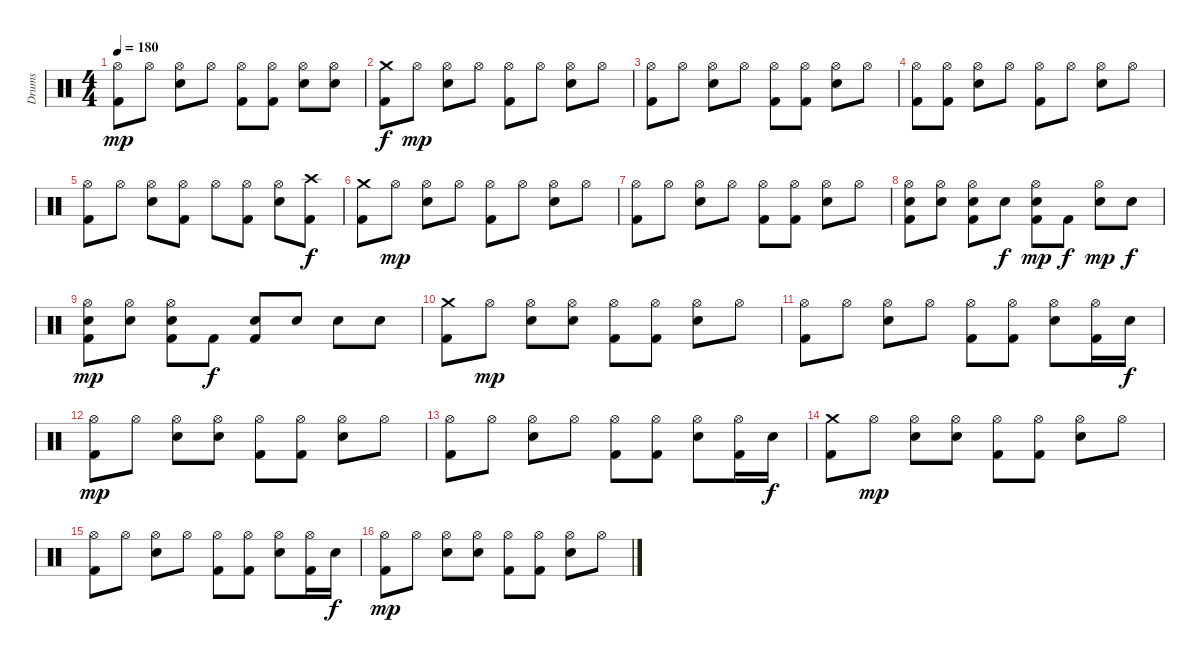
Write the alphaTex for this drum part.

\track ("Drums" "Drums") {instrument percussion}
\staff {score}
\articulation defaults
\ts (4 4)
\tempo 180
\clef neutral
\ks c
("Hi-Hat (open)" "Kick (hit) 2").8{dy mp} "Hi-Hat (open)".8 ("Hi-Hat (open)" "Snare (hit) 2").8 "Hi-Hat (open)".8 ("Hi-Hat (open)" "Kick (hit) 2").8 ("Hi-Hat (open)" "Kick (hit) 2").8 ("Hi-Hat (open)" "Snare (hit) 2").8 ("Hi-Hat (open)" "Snare (hit) 2").8 |
("Crash medium (hit)" "Kick (hit) 2").8{dy f} "Hi-Hat (open)".8{dy mp} ("Hi-Hat (open)" "Snare (hit) 2").8 "Hi-Hat (open)".8 ("Hi-Hat (open)" "Kick (hit) 2").8 "Hi-Hat (open)".8 ("Hi-Hat (open)" "Snare (hit) 2").8 "Hi-Hat (open)".8 |
("Hi-Hat (open)" "Kick (hit) 2").8 "Hi-Hat (open)".8 ("Hi-Hat (open)" "Snare (hit) 2").8 "Hi-Hat (open)".8 ("Hi-Hat (open)" "Kick (hit) 2").8 ("Hi-Hat (open)" "Kick (hit) 2").8 ("Hi-Hat (open)" "Snare (hit) 2").8 "Hi-Hat (open)".8 |
("Hi-Hat (open)" "Kick (hit) 2").8 ("Hi-Hat (open)" "Kick (hit) 2").8 ("Hi-Hat (open)" "Snare (hit) 2").8 "Hi-Hat (open)".8 ("Hi-Hat (open)" "Kick (hit) 2").8 "Hi-Hat (open)".8 ("Hi-Hat (open)" "Snare (hit) 2").8 "Hi-Hat (open)".8 |
("Hi-Hat (open)" "Kick (hit) 2").8 "Hi-Hat (open)".8 ("Hi-Hat (open)" "Snare (hit) 2").8 ("Hi-Hat (open)" "Kick (hit) 2").8 "Hi-Hat (open)".8 ("Hi-Hat (open)" "Kick (hit) 2").8 ("Hi-Hat (open)" "Snare (hit) 2").8 ("Crash high (hit)" "Kick (hit) 2").8{dy f} |
("Crash medium (hit)" "Kick (hit) 2").8 "Hi-Hat (open)".8{dy mp} ("Hi-Hat (open)" "Snare (hit) 2").8 "Hi-Hat (open)".8 ("Hi-Hat (open)" "Kick (hit) 2").8 "Hi-Hat (open)".8 ("Hi-Hat (open)" "Snare (hit) 2").8 "Hi-Hat (open)".8 |
("Hi-Hat (open)" "Kick (hit) 2").8 "Hi-Hat (open)".8 ("Hi-Hat (open)" "Snare (hit) 2").8 "Hi-Hat (open)".8 ("Hi-Hat (open)" "Kick (hit) 2").8 ("Hi-Hat (open)" "Kick (hit) 2").8 ("Hi-Hat (open)" "Snare (hit) 2").8 "Hi-Hat (open)".8 |
("Hi-Hat (open)" "Snare (hit) 2" "Kick (hit) 2").8 ("Hi-Hat (open)" "Snare (hit) 2").8 ("Hi-Hat (open)" "Snare (hit) 2" "Kick (hit) 2").8 "Snare (hit) 2".8{dy f} ("Hi-Hat (open)" "Snare (hit) 2" "Kick (hit) 2").8{dy mp} "Kick (hit) 2".8{dy f} ("Hi-Hat (open)" "Snare (hit) 2").8{dy mp} "Snare (hit) 2".8{dy f} |
("Hi-Hat (open)" "Snare (hit) 2" "Kick (hit) 2").8{dy mp} ("Hi-Hat (open)" "Snare (hit) 2").8 ("Hi-Hat (open)" "Snare (hit) 2" "Kick (hit) 2").8 "Kick (hit) 2".8{dy f} ("Snare (hit) 2" "Kick (hit) 2").8 "Snare (hit) 2".8 "Snare (hit) 2".8 "Snare (hit) 2".8 |
("Crash medium (hit)" "Kick (hit) 2").8 "Hi-Hat (open)".8{dy mp} ("Hi-Hat (open)" "Snare (hit) 2").8 ("Hi-Hat (open)" "Snare (hit) 2").8 ("Hi-Hat (open)" "Kick (hit) 2").8 ("Hi-Hat (open)" "Kick (hit) 2").8 ("Hi-Hat (open)" "Snare (hit) 2").8 "Hi-Hat (open)".8 |
("Hi-Hat (open)" "Kick (hit) 2").8 "Hi-Hat (open)".8 ("Hi-Hat (open)" "Snare (hit) 2").8 "Hi-Hat (open)".8 ("Hi-Hat (open)" "Kick (hit) 2").8 ("Hi-Hat (open)" "Kick (hit) 2").8 ("Hi-Hat (open)" "Snare (hit) 2").8 ("Hi-Hat (open)" "Kick (hit) 2").16 "Snare (hit) 2".16{dy f} |
("Hi-Hat (open)" "Kick (hit) 2").8{dy mp} "Hi-Hat (open)".8 ("Hi-Hat (open)" "Snare (hit) 2").8 ("Hi-Hat (open)" "Snare (hit) 2").8 ("Hi-Hat (open)" "Kick (hit) 2").8 ("Hi-Hat (open)" "Kick (hit) 2").8 ("Hi-Hat (open)" "Snare (hit) 2").8 "Hi-Hat (open)".8 |
("Hi-Hat (open)" "Kick (hit) 2").8 "Hi-Hat (open)".8 ("Hi-Hat (open)" "Snare (hit) 2").8 "Hi-Hat (open)".8 ("Hi-Hat (open)" "Kick (hit) 2").8 ("Hi-Hat (open)" "Kick (hit) 2").8 ("Hi-Hat (open)" "Snare (hit) 2").8 ("Hi-Hat (open)" "Kick (hit) 2").16 "Snare (hit) 2".16{dy f} |
("Crash medium (hit)" "Kick (hit) 2").8 "Hi-Hat (open)".8{dy mp} ("Hi-Hat (open)" "Snare (hit) 2").8 ("Hi-Hat (open)" "Snare (hit) 2").8 ("Hi-Hat (open)" "Kick (hit) 2").8 ("Hi-Hat (open)" "Kick (hit) 2").8 ("Hi-Hat (open)" "Snare (hit) 2").8 "Hi-Hat (open)".8 |
("Hi-Hat (open)" "Kick (hit) 2").8 "Hi-Hat (open)".8 ("Hi-Hat (open)" "Snare (hit) 2").8 "Hi-Hat (open)".8 ("Hi-Hat (open)" "Kick (hit) 2").8 ("Hi-Hat (open)" "Kick (hit) 2").8 ("Hi-Hat (open)" "Snare (hit) 2").8 ("Hi-Hat (open)" "Kick (hit) 2").16 "Snare (hit) 2".16{dy f} |
("Hi-Hat (open)" "Kick (hit) 2").8{dy mp} "Hi-Hat (open)".8 ("Hi-Hat (open)" "Snare (hit) 2").8 ("Hi-Hat (open)" "Snare (hit) 2").8 ("Hi-Hat (open)" "Kick (hit) 2").8 ("Hi-Hat (open)" "Kick (hit) 2").8 ("Hi-Hat (open)" "Snare (hit) 2").8 "Hi-Hat (open)".8
